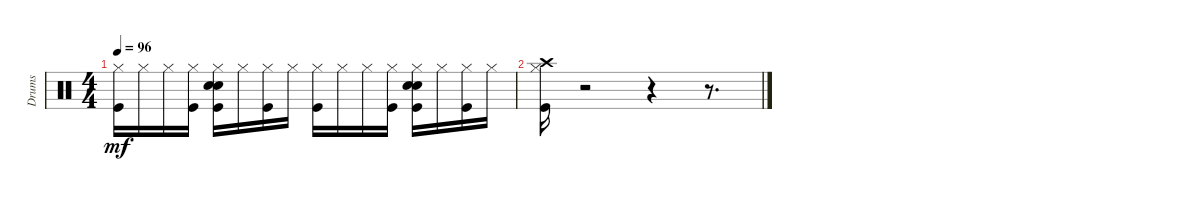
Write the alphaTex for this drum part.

\track ("Drums" "Drums") {instrument percussion}
\staff {score}
\articulation defaults
\ts (4 4)
\tempo 96
\clef neutral
\ks aminor
("Kick (hit)" "Hi-Hat (closed)").16{dy mf} "Hi-Hat (closed)".16 "Hi-Hat (closed)".16 ("Kick (hit)" "Hi-Hat (closed)").16 ("Kick (hit)" "Hand Clap (hit)" "Electric Snare (hit)" "Hi-Hat (closed)").16 "Hi-Hat (closed)".16 ("Kick (hit)" "Hi-Hat (closed)").16 "Hi-Hat (closed)".16 ("Kick (hit)" "Hi-Hat (closed)").16 "Hi-Hat (closed)".16 "Hi-Hat (closed)".16 ("Kick (hit)" "Hi-Hat (closed)").16 ("Kick (hit)" "Hand Clap (hit)" "Electric Snare (hit)" "Hi-Hat (closed)").16 "Hi-Hat (closed)".16 ("Kick (hit)" "Hi-Hat (closed)").16 "Hi-Hat (closed)".16 |
("Kick (hit)" "Hi-Hat (closed)" "Crash high (hit)").16 r.2 r.4 r.8{d}
